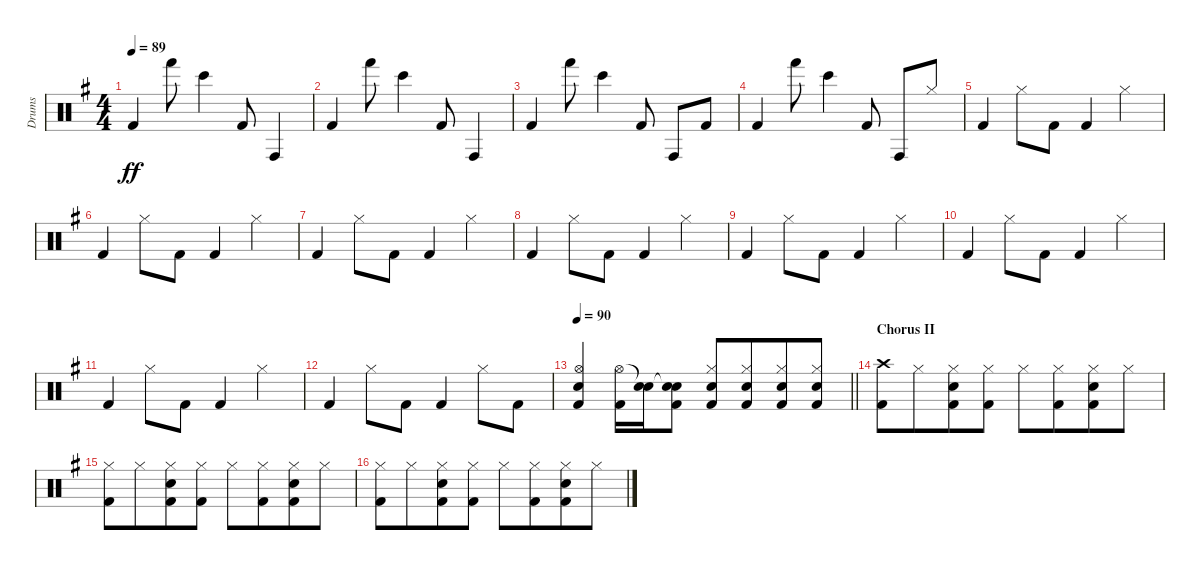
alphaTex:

\track ("Drums" "Drums") {instrument percussion}
\staff {score}
\articulation defaults
\ts (4 4)
\tempo 89
\clef neutral
\ks g "Kick (hit) 2".4{dy ff} "Hand (hit)".8 "Bongo High (hit)".4 "Kick (hit) 2".8 "Conga high (hit)".4
|
"Kick (hit) 2".4 "Hand (hit)".8 "Bongo High (hit)".4 "Kick (hit) 2".8 "Conga high (hit)".4 |
"Kick (hit) 2".4 "Hand (hit)".8 "Bongo High (hit)".4 "Kick (hit) 2".8 "Conga high (hit)".8 "Kick (hit) 2".8 |
"Kick (hit) 2".4 "Hand (hit)".8 "Bongo High (hit)".4 "Kick (hit) 2".8 "Conga high (hit)".8 "Hi-Hat (closed)".8 |
"Kick (hit) 2".4 "Hi-Hat (closed)".8 "Kick (hit) 2".8 "Kick (hit) 2".4 "Hi-Hat (closed)".4 |
"Kick (hit) 2".4 "Hi-Hat (closed)".8 "Kick (hit) 2".8 "Kick (hit) 2".4 "Hi-Hat (closed)".4 |
"Kick (hit) 2".4 "Hi-Hat (closed)".8 "Kick (hit) 2".8 "Kick (hit) 2".4 "Hi-Hat (closed)".4 |
"Kick (hit) 2".4 "Hi-Hat (closed)".8 "Kick (hit) 2".8 "Kick (hit) 2".4 "Hi-Hat (closed)".4 |
"Kick (hit) 2".4 "Hi-Hat (closed)".8 "Kick (hit) 2".8 "Kick (hit) 2".4 "Hi-Hat (closed)".4 |
"Kick (hit) 2".4 "Hi-Hat (closed)".8 "Kick (hit) 2".8 "Kick (hit) 2".4 "Hi-Hat (closed)".4 |
"Kick (hit) 2".4 "Hi-Hat (closed)".8 "Kick (hit) 2".8 "Kick (hit) 2".4 "Hi-Hat (closed)".4 |
"Kick (hit) 2".4 "Hi-Hat (closed)".8 "Kick (hit) 2".8 "Kick (hit) 2".4 "Hi-Hat (closed)".8 "Kick (hit) 2".8 |
\tempo 90
\barLineRight lightlight
("Hi-Hat (open)" "Electric Snare (hit)" "Kick (hit) 2").4 ("Hi-Hat (open)" "Kick (hit) 2").16 ("Snare (hit)"{t} "Electric Snare (hit)").16 ("Snare (hit)"{t} "Electric Snare (hit)" "Kick (hit) 2").8 ("Hi-Hat (closed)" "Electric Snare (hit)" "Kick (hit) 2").8 ("Hi-Hat (closed)" "Electric Snare (hit)" "Kick (hit) 2").8{beam merge} ("Hi-Hat (closed)" "Snare (hit) 2" "Kick (hit) 2").8 ("Hi-Hat (closed)" "Snare (hit) 2" "Kick (hit) 2").8 |
\section ("" "Chorus II")
("Crash high (hit)" "Kick (hit) 2").8 "Hi-Hat (closed)".8{beam merge} ("Hi-Hat (closed)" "Electric Snare (hit)" "Kick (hit) 2").8 ("Hi-Hat (closed)" "Kick (hit) 2").8 "Hi-Hat (closed)".8 ("Hi-Hat (closed)" "Kick (hit) 2").8{beam merge} ("Hi-Hat (closed)" "Electric Snare (hit)" "Kick (hit) 2").8 "Hi-Hat (closed)".8 |
("Hi-Hat (closed)" "Kick (hit) 2").8 "Hi-Hat (closed)".8{beam merge} ("Hi-Hat (closed)" "Electric Snare (hit)" "Kick (hit) 2").8 ("Hi-Hat (closed)" "Kick (hit) 2").8 "Hi-Hat (closed)".8 ("Hi-Hat (closed)" "Kick (hit) 2").8{beam merge} ("Hi-Hat (closed)" "Electric Snare (hit)" "Kick (hit) 2").8 "Hi-Hat (closed)".8 |
("Hi-Hat (closed)" "Kick (hit) 2").8 "Hi-Hat (closed)".8{beam merge} ("Hi-Hat (closed)" "Electric Snare (hit)" "Kick (hit) 2").8 ("Hi-Hat (closed)" "Kick (hit) 2").8 "Hi-Hat (closed)".8 ("Hi-Hat (closed)" "Kick (hit) 2").8{beam merge} ("Hi-Hat (closed)" "Electric Snare (hit)" "Kick (hit) 2").8 "Hi-Hat (closed)".8
